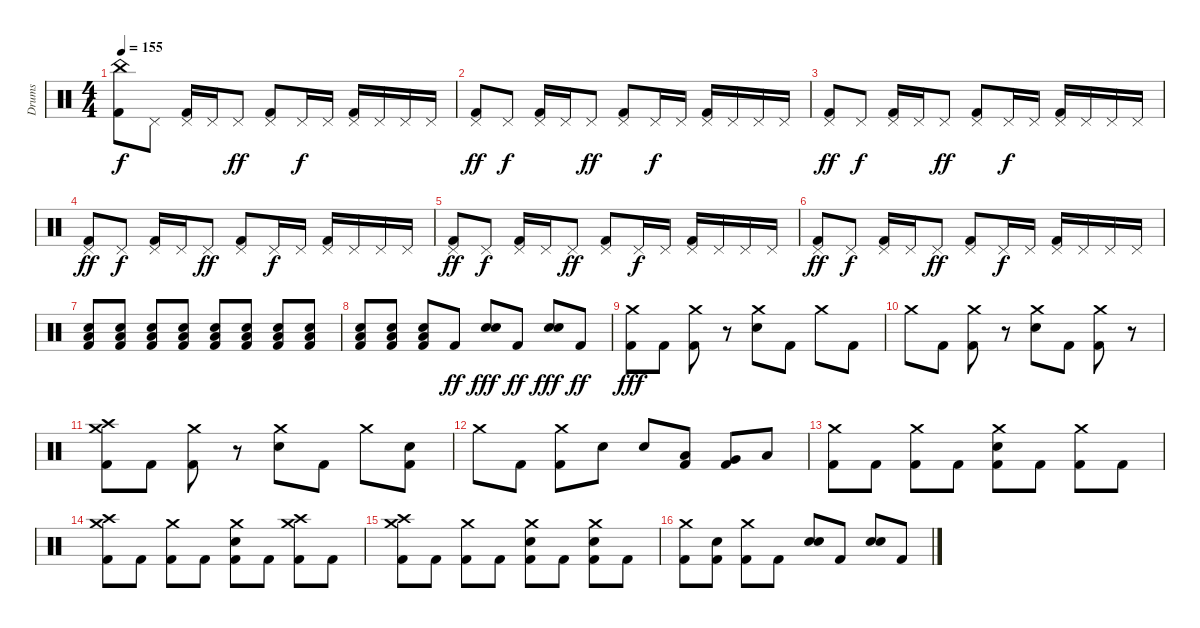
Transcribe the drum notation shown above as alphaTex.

\track ("Drums" "Drums") {instrument percussion}
\staff {score}
\articulation defaults
\ts (4 4)
\tempo 155
\clef neutral
\ks c
("China (hit)" "Kick (hit) 2").8{dy f} "Pedal Hi-Hat (hit)".8 ("Pedal Hi-Hat (hit)" "Kick (hit) 2").16 "Pedal Hi-Hat (hit)".16 "Pedal Hi-Hat (hit)".8{dy ff} ("Pedal Hi-Hat (hit)" "Kick (hit) 2").8 "Pedal Hi-Hat (hit)".16{dy f} "Pedal Hi-Hat (hit)".16 ("Pedal Hi-Hat (hit)" "Kick (hit) 2").16 "Pedal Hi-Hat (hit)".16 "Pedal Hi-Hat (hit)".16 "Pedal Hi-Hat (hit)".16 |
("Pedal Hi-Hat (hit)" "Kick (hit) 2").8{dy ff} "Pedal Hi-Hat (hit)".8{dy f} ("Pedal Hi-Hat (hit)" "Kick (hit) 2").16 "Pedal Hi-Hat (hit)".16 "Pedal Hi-Hat (hit)".8{dy ff} ("Pedal Hi-Hat (hit)" "Kick (hit) 2").8 "Pedal Hi-Hat (hit)".16{dy f} "Pedal Hi-Hat (hit)".16 ("Pedal Hi-Hat (hit)" "Kick (hit) 2").16 "Pedal Hi-Hat (hit)".16 "Pedal Hi-Hat (hit)".16 "Pedal Hi-Hat (hit)".16 |
("Pedal Hi-Hat (hit)" "Kick (hit) 2").8{dy ff} "Pedal Hi-Hat (hit)".8{dy f} ("Pedal Hi-Hat (hit)" "Kick (hit) 2").16 "Pedal Hi-Hat (hit)".16 "Pedal Hi-Hat (hit)".8{dy ff} ("Pedal Hi-Hat (hit)" "Kick (hit) 2").8 "Pedal Hi-Hat (hit)".16{dy f} "Pedal Hi-Hat (hit)".16 ("Pedal Hi-Hat (hit)" "Kick (hit) 2").16 "Pedal Hi-Hat (hit)".16 "Pedal Hi-Hat (hit)".16 "Pedal Hi-Hat (hit)".16 |
("Pedal Hi-Hat (hit)" "Kick (hit) 2").8{dy ff} "Pedal Hi-Hat (hit)".8{dy f} ("Pedal Hi-Hat (hit)" "Kick (hit) 2").16 "Pedal Hi-Hat (hit)".16 "Pedal Hi-Hat (hit)".8{dy ff} ("Pedal Hi-Hat (hit)" "Kick (hit) 2").8 "Pedal Hi-Hat (hit)".16{dy f} "Pedal Hi-Hat (hit)".16 ("Pedal Hi-Hat (hit)" "Kick (hit) 2").16 "Pedal Hi-Hat (hit)".16 "Pedal Hi-Hat (hit)".16 "Pedal Hi-Hat (hit)".16 |
("Pedal Hi-Hat (hit)" "Kick (hit) 2").8{dy ff} "Pedal Hi-Hat (hit)".8{dy f} ("Pedal Hi-Hat (hit)" "Kick (hit) 2").16 "Pedal Hi-Hat (hit)".16 "Pedal Hi-Hat (hit)".8{dy ff} ("Pedal Hi-Hat (hit)" "Kick (hit) 2").8 "Pedal Hi-Hat (hit)".16{dy f} "Pedal Hi-Hat (hit)".16 ("Pedal Hi-Hat (hit)" "Kick (hit) 2").16 "Pedal Hi-Hat (hit)".16 "Pedal Hi-Hat (hit)".16 "Pedal Hi-Hat (hit)".16 |
("Pedal Hi-Hat (hit)" "Kick (hit) 2").8{dy ff} "Pedal Hi-Hat (hit)".8{dy f} ("Pedal Hi-Hat (hit)" "Kick (hit) 2").16 "Pedal Hi-Hat (hit)".16 "Pedal Hi-Hat (hit)".8{dy ff} ("Pedal Hi-Hat (hit)" "Kick (hit) 2").8 "Pedal Hi-Hat (hit)".16{dy f} "Pedal Hi-Hat (hit)".16 ("Pedal Hi-Hat (hit)" "Kick (hit) 2").16 "Pedal Hi-Hat (hit)".16 "Pedal Hi-Hat (hit)".16 "Pedal Hi-Hat (hit)".16 |
("Low Floor Tom (hit)" "Electric Snare (hit)" "Kick (hit) 2").8 ("Low Floor Tom (hit)" "Electric Snare (hit)" "Kick (hit) 2").8 ("Low Floor Tom (hit)" "Electric Snare (hit)" "Kick (hit) 2").8 ("Low Floor Tom (hit)" "Electric Snare (hit)" "Kick (hit) 2").8 ("Low Floor Tom (hit)" "Electric Snare (hit)" "Kick (hit) 2").8 ("Low Floor Tom (hit)" "Electric Snare (hit)" "Kick (hit) 2").8 ("Low Floor Tom (hit)" "Electric Snare (hit)" "Kick (hit) 2").8 ("Low Floor Tom (hit)" "Electric Snare (hit)" "Kick (hit) 2").8 |
("Low Floor Tom (hit)" "Electric Snare (hit)" "Kick (hit) 2").8 ("Low Floor Tom (hit)" "Electric Snare (hit)" "Kick (hit) 2").8 ("Low Floor Tom (hit)" "Electric Snare (hit)" "Kick (hit) 2").8 "Kick (hit) 2".8{dy ff} ("Electric Snare (hit)" "Electric Snare (hit)").8{dy fff} "Kick (hit) 2".8{dy ff} ("Electric Snare (hit)" "Electric Snare (hit)").8{dy fff} "Kick (hit) 2".8{dy ff} |
("Crash medium (hit)" "Kick (hit) 2").8{dy fff} "Kick (hit) 2".8 ("Crash medium (hit)" "Kick (hit) 2").8 r.8 ("Crash medium (hit)" "Electric Snare (hit)").8 "Kick (hit) 2".8 "Crash medium (hit)".8 "Kick (hit) 2".8 |
"Crash medium (hit)".8 "Kick (hit) 2".8 ("Crash medium (hit)" "Kick (hit) 2").8 r.8 ("Crash medium (hit)" "Electric Snare (hit)").8 "Kick (hit) 2".8 ("Crash medium (hit)" "Kick (hit) 2").8 r.8 |
("Crash high (hit)" "Crash medium (hit)" "Kick (hit) 2").8 "Kick (hit) 2".8 ("Crash medium (hit)" "Kick (hit) 2").8 r.8 ("Crash medium (hit)" "Electric Snare (hit)").8 "Kick (hit) 2".8 "Crash medium (hit)".8 ("Electric Snare (hit)" "Kick (hit) 2").8 |
"Crash medium (hit)".8 "Kick (hit) 2".8 ("Crash medium (hit)" "Kick (hit) 2").8 "Electric Snare (hit)".8 "Electric Snare (hit)".8 ("Low Tom (hit)" "Kick (hit) 2").8 ("Very Low Tom (hit)" "Kick (hit) 2").8 "Low Floor Tom (hit)".8 |
("Crash medium (hit)" "Kick (hit) 2").8 "Kick (hit) 2".8 ("Crash medium (hit)" "Kick (hit) 2").8 "Kick (hit) 2".8 ("Crash medium (hit)" "Electric Snare (hit)" "Kick (hit) 2").8 "Kick (hit) 2".8 ("Crash medium (hit)" "Kick (hit) 2").8 "Kick (hit) 2".8 |
("Crash high (hit)" "Crash medium (hit)" "Kick (hit) 2").8 "Kick (hit) 2".8 ("Crash medium (hit)" "Kick (hit) 2").8 "Kick (hit) 2".8 ("Crash medium (hit)" "Electric Snare (hit)" "Kick (hit) 2").8 "Kick (hit) 2".8 ("Crash high (hit)" "Crash medium (hit)" "Kick (hit) 2").8 "Kick (hit) 2".8 |
("Crash high (hit)" "Crash medium (hit)" "Kick (hit) 2").8 "Kick (hit) 2".8 ("Crash medium (hit)" "Kick (hit) 2").8 "Kick (hit) 2".8 ("Crash medium (hit)" "Electric Snare (hit)" "Kick (hit) 2").8 "Kick (hit) 2".8 ("Crash medium (hit)" "Electric Snare (hit)" "Kick (hit) 2").8 "Kick (hit) 2".8 |
("Crash medium (hit)" "Kick (hit) 2").8 ("Electric Snare (hit)" "Kick (hit) 2").8 ("Crash medium (hit)" "Kick (hit) 2").8 "Kick (hit) 2".8 ("Electric Snare (hit)" "Electric Snare (hit)").8 "Kick (hit) 2".8 ("Electric Snare (hit)" "Electric Snare (hit)").8 "Kick (hit) 2".8
